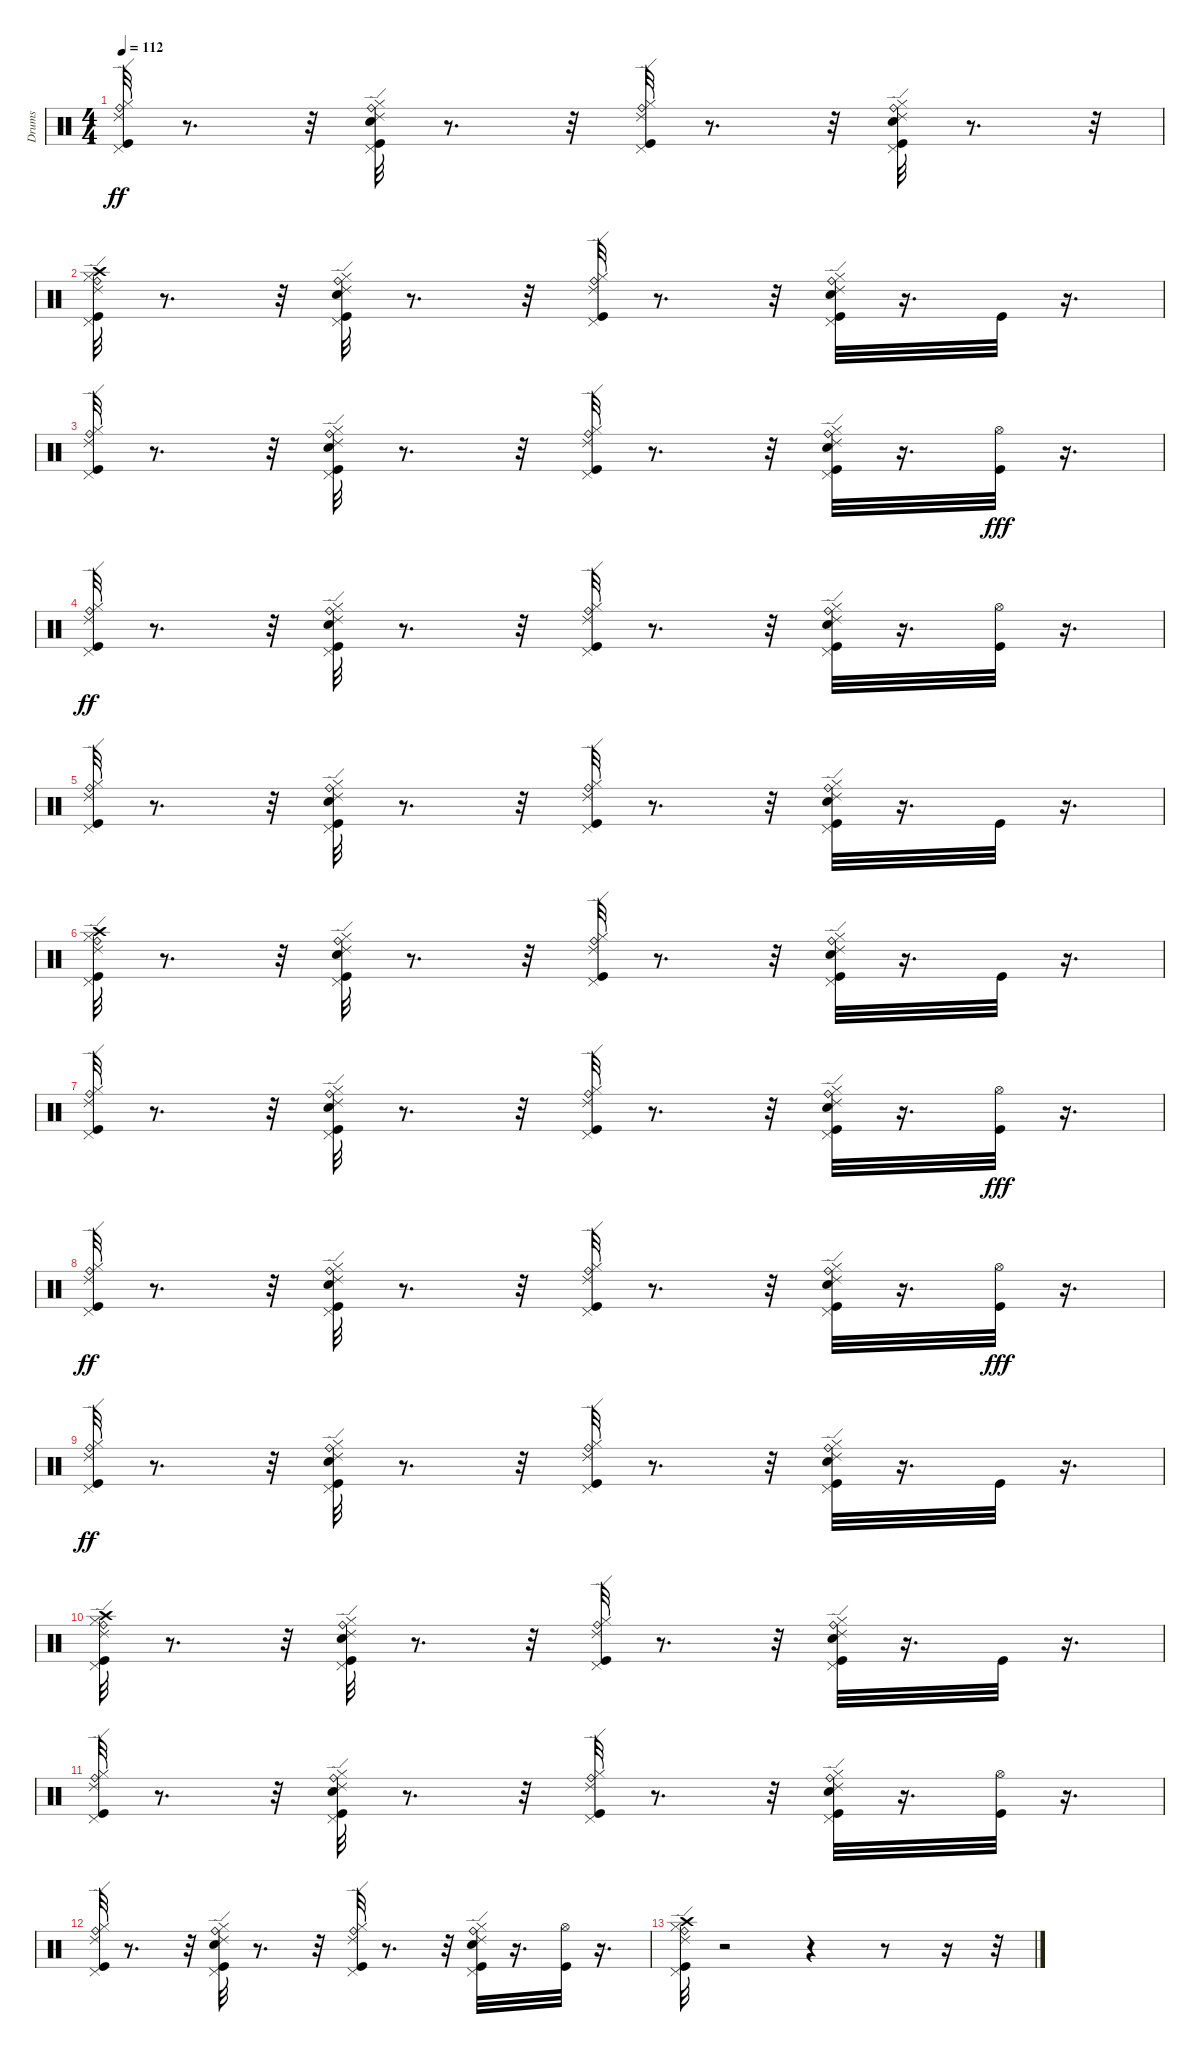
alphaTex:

\track ("Drums" "Drums") {instrument percussion}
\staff {score}
\articulation defaults
\ts (4 4)
\tempo 112
\clef neutral
\ks c
("Ride (bell)" "Ride (edge) 2" "Kick (hit)" "Hi-Hat (closed)" "Pedal Hi-Hat (hit)").32{dy ff} r.8{d} r.32 ("Ride (bell)" "Ride (edge) 2" "Kick (hit)" "Snare (hit) 2" "Hi-Hat (closed)" "Pedal Hi-Hat (hit)").32 r.8{d} r.32 ("Ride (edge) 2" "Ride (bell)" "Pedal Hi-Hat (hit)" "Hi-Hat (closed)" "Kick (hit)").32 r.8{d} r.32 ("Ride (bell)" "Ride (edge) 2" "Hi-Hat (closed)" "Kick (hit)" "Pedal Hi-Hat (hit)" "Snare (hit) 2").32 r.8{d} r.32 |
("Ride (edge) 2" "Ride (bell)" "Pedal Hi-Hat (hit)" "Hi-Hat (closed)" "Crash high (hit)" "Kick (hit)").32 r.8{d} r.32 ("Ride (bell)" "Ride (edge) 2" "Hi-Hat (closed)" "Pedal Hi-Hat (hit)" "Kick (hit)" "Snare (hit) 2").32 r.8{d} r.32 ("Ride (bell)" "Ride (edge) 2" "Kick (hit)" "Hi-Hat (closed)" "Pedal Hi-Hat (hit)").32 r.8{d} r.32 ("Ride (edge) 2" "Ride (bell)" "Hi-Hat (closed)" "Kick (hit)" "Pedal Hi-Hat (hit)" "Snare (hit) 2").32 r.16{d} "Kick (hit)".32 r.16{d} |
("Ride (bell)" "Ride (edge) 2" "Hi-Hat (closed)" "Kick (hit)" "Pedal Hi-Hat (hit)").32 r.8{d} r.32 ("Ride (bell)" "Ride (edge) 2" "Kick (hit)" "Snare (hit) 2" "Hi-Hat (closed)" "Pedal Hi-Hat (hit)").32 r.8{d} r.32 ("Ride (bell)" "Ride (edge) 2" "Pedal Hi-Hat (hit)" "Kick (hit)" "Hi-Hat (closed)").32 r.8{d} r.32 ("Ride (bell)" "Ride (edge) 2" "Kick (hit)" "Snare (hit) 2" "Pedal Hi-Hat (hit)" "Hi-Hat (closed)").32 r.16{d} ("Kick (hit)" "Hi-Hat (open)").32{dy fff} r.16{d} |
("Ride (bell)" "Ride (edge) 2" "Kick (hit)" "Hi-Hat (closed)" "Pedal Hi-Hat (hit)").32{dy ff} r.8{d} r.32 ("Ride (bell)" "Ride (edge) 2" "Kick (hit)" "Hi-Hat (closed)" "Snare (hit) 2" "Pedal Hi-Hat (hit)").32 r.8{d} r.32 ("Ride (bell)" "Ride (edge) 2" "Hi-Hat (closed)" "Pedal Hi-Hat (hit)" "Kick (hit)").32 r.8{d} r.32 ("Ride (bell)" "Ride (edge) 2" "Pedal Hi-Hat (hit)" "Hi-Hat (closed)" "Snare (hit) 2" "Kick (hit)").32 r.16{d} ("Hi-Hat (open)" "Kick (hit)").32 r.16{d} |
("Ride (bell)" "Ride (edge) 2" "Pedal Hi-Hat (hit)" "Hi-Hat (closed)" "Kick (hit)").32 r.8{d} r.32 ("Ride (bell)" "Ride (edge) 2" "Hi-Hat (closed)" "Snare (hit) 2" "Kick (hit)" "Pedal Hi-Hat (hit)").32 r.8{d} r.32 ("Ride (edge) 2" "Ride (bell)" "Pedal Hi-Hat (hit)" "Hi-Hat (closed)" "Kick (hit)").32 r.8{d} r.32 ("Ride (edge) 2" "Ride (bell)" "Pedal Hi-Hat (hit)" "Hi-Hat (closed)" "Snare (hit) 2" "Kick (hit)").32 r.16{d} "Kick (hit)".32 r.16{d} |
("Ride (bell)" "Ride (edge) 2" "Kick (hit)" "Hi-Hat (closed)" "Crash high (hit)" "Pedal Hi-Hat (hit)").32 r.8{d} r.32 ("Ride (bell)" "Ride (edge) 2" "Snare (hit) 2" "Kick (hit)" "Pedal Hi-Hat (hit)" "Hi-Hat (closed)").32 r.8{d} r.32 ("Ride (bell)" "Ride (edge) 2" "Hi-Hat (closed)" "Kick (hit)" "Pedal Hi-Hat (hit)").32 r.8{d} r.32 ("Ride (edge) 2" "Ride (bell)" "Snare (hit) 2" "Pedal Hi-Hat (hit)" "Hi-Hat (closed)" "Kick (hit)").32 r.16{d} "Kick (hit)".32 r.16{d} |
("Ride (bell)" "Ride (edge) 2" "Pedal Hi-Hat (hit)" "Kick (hit)" "Hi-Hat (closed)").32 r.8{d} r.32 ("Ride (bell)" "Ride (edge) 2" "Kick (hit)" "Hi-Hat (closed)" "Snare (hit) 2" "Pedal Hi-Hat (hit)").32 r.8{d} r.32 ("Ride (edge) 2" "Ride (bell)" "Pedal Hi-Hat (hit)" "Kick (hit)" "Hi-Hat (closed)").32 r.8{d} r.32 ("Ride (bell)" "Ride (edge) 2" "Hi-Hat (closed)" "Kick (hit)" "Pedal Hi-Hat (hit)" "Snare (hit) 2").32 r.16{d} ("Kick (hit)" "Hi-Hat (open)").32{dy fff} r.16{d} |
("Ride (bell)" "Ride (edge) 2" "Hi-Hat (closed)" "Kick (hit)" "Pedal Hi-Hat (hit)").32{dy ff} r.8{d} r.32 ("Ride (edge) 2" "Ride (bell)" "Pedal Hi-Hat (hit)" "Snare (hit) 2" "Kick (hit)" "Hi-Hat (closed)").32 r.8{d} r.32 ("Ride (bell)" "Ride (edge) 2" "Hi-Hat (closed)" "Pedal Hi-Hat (hit)" "Kick (hit)").32 r.8{d} r.32 ("Ride (edge) 2" "Ride (bell)" "Pedal Hi-Hat (hit)" "Kick (hit)" "Snare (hit) 2" "Hi-Hat (closed)").32 r.16{d} ("Kick (hit)" "Hi-Hat (open)").32{dy fff} r.16{d} |
("Ride (edge) 2" "Ride (bell)" "Hi-Hat (closed)" "Pedal Hi-Hat (hit)" "Kick (hit)").32{dy ff} r.8{d} r.32 ("Ride (bell)" "Ride (edge) 2" "Kick (hit)" "Snare (hit) 2" "Hi-Hat (closed)" "Pedal Hi-Hat (hit)").32 r.8{d} r.32 ("Ride (bell)" "Ride (edge) 2" "Kick (hit)" "Pedal Hi-Hat (hit)" "Hi-Hat (closed)").32 r.8{d} r.32 ("Ride (bell)" "Ride (edge) 2" "Hi-Hat (closed)" "Pedal Hi-Hat (hit)" "Kick (hit)" "Snare (hit) 2").32 r.16{d} "Kick (hit)".32 r.16{d} |
("Ride (edge) 2" "Ride (bell)" "Crash high (hit)" "Kick (hit)" "Pedal Hi-Hat (hit)" "Hi-Hat (closed)").32 r.8{d} r.32 ("Ride (bell)" "Ride (edge) 2" "Snare (hit) 2" "Hi-Hat (closed)" "Kick (hit)" "Pedal Hi-Hat (hit)").32 r.8{d} r.32 ("Ride (bell)" "Ride (edge) 2" "Hi-Hat (closed)" "Kick (hit)" "Pedal Hi-Hat (hit)").32 r.8{d} r.32 ("Ride (bell)" "Ride (edge) 2" "Pedal Hi-Hat (hit)" "Snare (hit) 2" "Kick (hit)" "Hi-Hat (closed)").32 r.16{d} "Kick (hit)".32 r.16{d} |
("Ride (bell)" "Ride (edge) 2" "Hi-Hat (closed)" "Kick (hit)" "Pedal Hi-Hat (hit)").32 r.8{d} r.32 ("Ride (bell)" "Ride (edge) 2" "Hi-Hat (closed)" "Snare (hit) 2" "Pedal Hi-Hat (hit)" "Kick (hit)").32 r.8{d} r.32 ("Ride (edge) 2" "Ride (bell)" "Pedal Hi-Hat (hit)" "Kick (hit)" "Hi-Hat (closed)").32 r.8{d} r.32 ("Ride (bell)" "Ride (edge) 2" "Hi-Hat (closed)" "Kick (hit)" "Pedal Hi-Hat (hit)" "Snare (hit) 2").32 r.16{d} ("Hi-Hat (open)" "Kick (hit)").32 r.16{d} |
("Ride (edge) 2" "Ride (bell)" "Hi-Hat (closed)" "Pedal Hi-Hat (hit)" "Kick (hit)").32 r.8{d} r.32 ("Ride (edge) 2" "Ride (bell)" "Kick (hit)" "Snare (hit) 2" "Pedal Hi-Hat (hit)" "Hi-Hat (closed)").32 r.8{d} r.32 ("Ride (edge) 2" "Ride (bell)" "Kick (hit)" "Hi-Hat (closed)" "Pedal Hi-Hat (hit)").32 r.8{d} r.32 ("Ride (edge) 2" "Ride (bell)" "Snare (hit) 2" "Hi-Hat (closed)" "Pedal Hi-Hat (hit)" "Kick (hit)").32 r.16{d} ("Hi-Hat (open)" "Kick (hit)").32 r.16{d} |
("Ride (bell)" "Ride (edge) 2" "Hi-Hat (closed)" "Pedal Hi-Hat (hit)" "Kick (hit)" "Crash high (hit)").32 r.2 r.4 r.8 r.16 r.32
